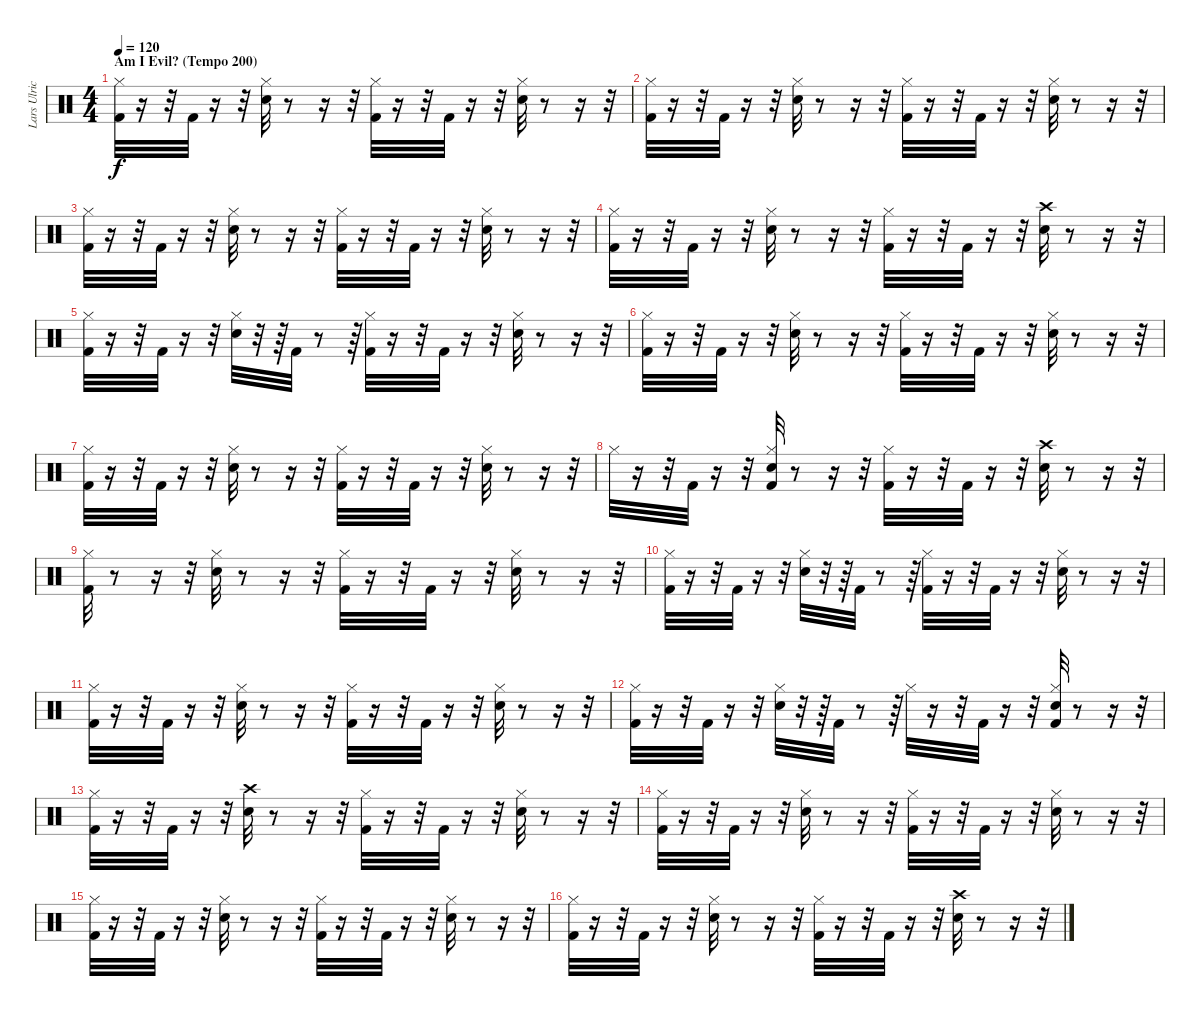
\track ("Lars Ulrich (Drums)" "Lars Ulric") {instrument percussion}
\staff {score}
\articulation defaults
\ts (4 4)
\section ("" "Am I Evil? (Tempo 200)")
\tempo 120
\tempo 200
\tempo 120
\clef neutral
\ks c
("Kick (hit) 2" "Hi-Hat (closed)").32{dy f} r.16 r.32 "Kick (hit) 2".32 r.16 r.32 ("Snare (hit) 2" "Hi-Hat (closed)").32 r.8 r.16 r.32 ("Kick (hit) 2" "Hi-Hat (closed)").32 r.16 r.32 "Kick (hit) 2".32 r.16 r.32 ("Snare (hit) 2" "Hi-Hat (closed)").32 r.8 r.16 r.32 |
("Kick (hit) 2" "Hi-Hat (closed)").32 r.16 r.32 "Kick (hit) 2".32 r.16 r.32 ("Snare (hit) 2" "Hi-Hat (closed)").32 r.8 r.16 r.32 ("Kick (hit) 2" "Hi-Hat (closed)").32 r.16 r.32 "Kick (hit) 2".32 r.16 r.32 ("Snare (hit) 2" "Hi-Hat (closed)").32 r.8 r.16 r.32 |
("Kick (hit) 2" "Hi-Hat (closed)").32 r.16 r.32 "Kick (hit) 2".32 r.16 r.32 ("Snare (hit) 2" "Hi-Hat (closed)").32 r.8 r.16 r.32 ("Kick (hit) 2" "Hi-Hat (closed)").32 r.16 r.32 "Kick (hit) 2".32 r.16 r.32 ("Snare (hit) 2" "Hi-Hat (closed)").32 r.8 r.16 r.32 |
("Kick (hit) 2" "Hi-Hat (closed)").32 r.16 r.32 "Kick (hit) 2".32 r.16 r.32 ("Snare (hit) 2" "Hi-Hat (closed)").32 r.8 r.16 r.32 ("Kick (hit) 2" "Hi-Hat (closed)").32 r.16 r.32 "Kick (hit) 2".32 r.16 r.32 ("Crash high (hit)" "Snare (hit) 2").32 r.8 r.16 r.32 |
("Kick (hit) 2" "Hi-Hat (closed)").32 r.16 r.32 "Kick (hit) 2".32 r.16 r.32 ("Snare (hit) 2" "Hi-Hat (closed)").32 r.32 r.64 "Kick (hit) 2".32 r.8 r.64 ("Kick (hit) 2" "Hi-Hat (closed)").32 r.16 r.32 "Kick (hit) 2".32 r.16 r.32 ("Snare (hit) 2" "Hi-Hat (closed)").32 r.8 r.16 r.32 |
("Kick (hit) 2" "Hi-Hat (closed)").32 r.16 r.32 "Kick (hit) 2".32 r.16 r.32 ("Snare (hit) 2" "Hi-Hat (closed)").32 r.8 r.16 r.32 ("Kick (hit) 2" "Hi-Hat (closed)").32 r.16 r.32 "Kick (hit) 2".32 r.16 r.32 ("Snare (hit) 2" "Hi-Hat (closed)").32 r.8 r.16 r.32 |
("Kick (hit) 2" "Hi-Hat (closed)").32 r.16 r.32 "Kick (hit) 2".32 r.16 r.32 ("Snare (hit) 2" "Hi-Hat (closed)").32 r.8 r.16 r.32 ("Kick (hit) 2" "Hi-Hat (closed)").32 r.16 r.32 "Kick (hit) 2".32 r.16 r.32 ("Snare (hit) 2" "Hi-Hat (closed)").32 r.8 r.16 r.32 |
"Hi-Hat (closed)".32 r.16 r.32 "Kick (hit) 2".32 r.16 r.32 ("Kick (hit) 2" "Snare (hit) 2" "Hi-Hat (closed)").32 r.8 r.16 r.32 ("Kick (hit) 2" "Hi-Hat (closed)").32 r.16 r.32 "Kick (hit) 2".32 r.16 r.32 ("Crash high (hit)" "Snare (hit) 2").32 r.8 r.16 r.32 |
("Kick (hit) 2" "Hi-Hat (closed)").32 r.8 r.16 r.32 ("Snare (hit) 2" "Hi-Hat (closed)").32 r.8 r.16 r.32 ("Kick (hit) 2" "Hi-Hat (closed)").32 r.16 r.32 "Kick (hit) 2".32 r.16 r.32 ("Hi-Hat (closed)" "Snare (hit) 2").32 r.8 r.16 r.32 |
("Kick (hit) 2" "Hi-Hat (closed)").32 r.16 r.32 "Kick (hit) 2".32 r.16 r.32 ("Snare (hit) 2" "Hi-Hat (closed)").32 r.32 r.64 "Kick (hit) 2".32 r.8 r.64 ("Kick (hit) 2" "Hi-Hat (closed)").32 r.16 r.32 "Kick (hit) 2".32 r.16 r.32 ("Snare (hit) 2" "Hi-Hat (closed)").32 r.8 r.16 r.32 |
("Kick (hit) 2" "Hi-Hat (closed)").32 r.16 r.32 "Kick (hit) 2".32 r.16 r.32 ("Snare (hit) 2" "Hi-Hat (closed)").32 r.8 r.16 r.32 ("Kick (hit) 2" "Hi-Hat (closed)").32 r.16 r.32 "Kick (hit) 2".32 r.16 r.32 ("Hi-Hat (closed)" "Snare (hit) 2").32 r.8 r.16 r.32 |
("Kick (hit) 2" "Hi-Hat (closed)").32 r.16 r.32 "Kick (hit) 2".32 r.16 r.32 ("Snare (hit) 2" "Hi-Hat (closed)").32 r.32 r.64 "Kick (hit) 2".32 r.8 r.64 "Hi-Hat (closed)".32 r.16 r.32 "Kick (hit) 2".32 r.16 r.32 ("Kick (hit) 2" "Snare (hit) 2" "Hi-Hat (closed)").32 r.8 r.16 r.32 |
("Kick (hit) 2" "Hi-Hat (closed)").32 r.16 r.32 "Kick (hit) 2".32 r.16 r.32 ("Crash high (hit)" "Snare (hit) 2").32 r.8 r.16 r.32 ("Kick (hit) 2" "Hi-Hat (closed)").32 r.16 r.32 "Kick (hit) 2".32 r.16 r.32 ("Snare (hit) 2" "Hi-Hat (closed)").32 r.8 r.16 r.32 |
("Kick (hit) 2" "Hi-Hat (closed)").32 r.16 r.32 "Kick (hit) 2".32 r.16 r.32 ("Snare (hit) 2" "Hi-Hat (closed)").32 r.8 r.16 r.32 ("Kick (hit) 2" "Hi-Hat (closed)").32 r.16 r.32 "Kick (hit) 2".32 r.16 r.32 ("Snare (hit) 2" "Hi-Hat (closed)").32 r.8 r.16 r.32 |
("Kick (hit) 2" "Hi-Hat (closed)").32 r.16 r.32 "Kick (hit) 2".32 r.16 r.32 ("Snare (hit) 2" "Hi-Hat (closed)").32 r.8 r.16 r.32 ("Kick (hit) 2" "Hi-Hat (closed)").32 r.16 r.32 "Kick (hit) 2".32 r.16 r.32 ("Snare (hit) 2" "Hi-Hat (closed)").32 r.8 r.16 r.32 |
("Kick (hit) 2" "Hi-Hat (closed)").32 r.16 r.32 "Kick (hit) 2".32 r.16 r.32 ("Snare (hit) 2" "Hi-Hat (closed)").32 r.8 r.16 r.32 ("Kick (hit) 2" "Hi-Hat (closed)").32 r.16 r.32 "Kick (hit) 2".32 r.16 r.32 ("Crash high (hit)" "Snare (hit) 2").32 r.8 r.16 r.32
